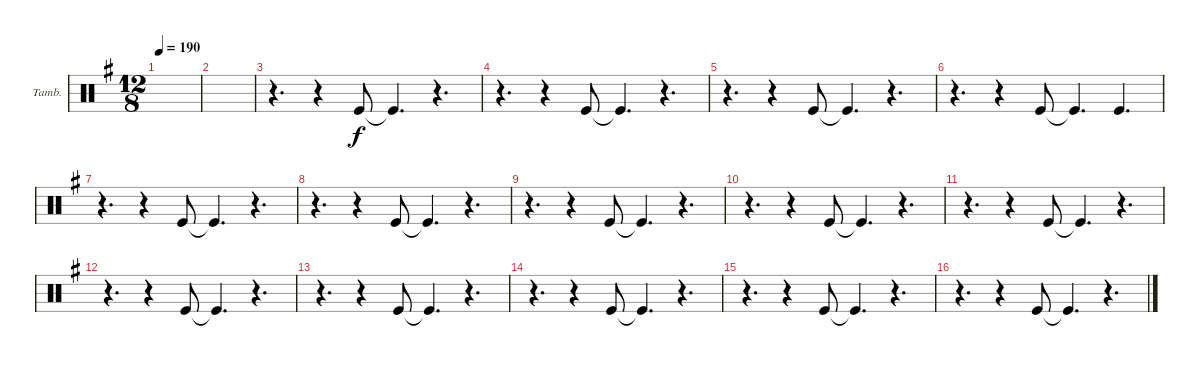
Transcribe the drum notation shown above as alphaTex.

\defaultSystemsLayout 4
\bracketExtendMode groupsimilarinstruments
\firstSystemTrackNameOrientation horizontal
\otherSystemsTrackNameOrientation horizontal
\track ("Tambourine" "Tamb.") {instrument percussion}
\staff {score}
\articulation defaults
\ts (12 8)
\tempo 190
\clef neutral
\scale
0.504425
\ks g
|
\scale
0.247788 |
\scale
0.247788 r.4{d} r.4 "Kick (hit)".8 "Kick (hit)"{t}.4{d} r.4{d} |
r.4{d} r.4 "Kick (hit)".8 "Kick (hit)"{t}.4{d} r.4{d} |
r.4{d} r.4 "Kick (hit)".8 "Kick (hit)"{t}.4{d} r.4{d} |
r.4{d} r.4 "Kick (hit)".8 "Kick (hit)"{t}.4{d} "Kick (hit)".4{d} |
r.4{d} r.4 "Kick (hit)".8 "Kick (hit)"{t}.4{d} r.4{d} |
r.4{d} r.4 "Kick (hit)".8 "Kick (hit)"{t}.4{d} r.4{d} |
r.4{d} r.4 "Kick (hit)".8 "Kick (hit)"{t}.4{d} r.4{d} |
r.4{d} r.4 "Kick (hit)".8 "Kick (hit)"{t}.4{d} r.4{d} |
r.4{d} r.4 "Kick (hit)".8 "Kick (hit)"{t}.4{d} r.4{d} |
r.4{d} r.4 "Kick (hit)".8 "Kick (hit)"{t}.4{d} r.4{d} |
r.4{d} r.4 "Kick (hit)".8 "Kick (hit)"{t}.4{d} r.4{d} |
r.4{d} r.4 "Kick (hit)".8 "Kick (hit)"{t}.4{d} r.4{d} |
r.4{d} r.4 "Kick (hit)".8 "Kick (hit)"{t}.4{d} r.4{d} |
r.4{d} r.4 "Kick (hit)".8 "Kick (hit)"{t}.4{d} r.4{d}
